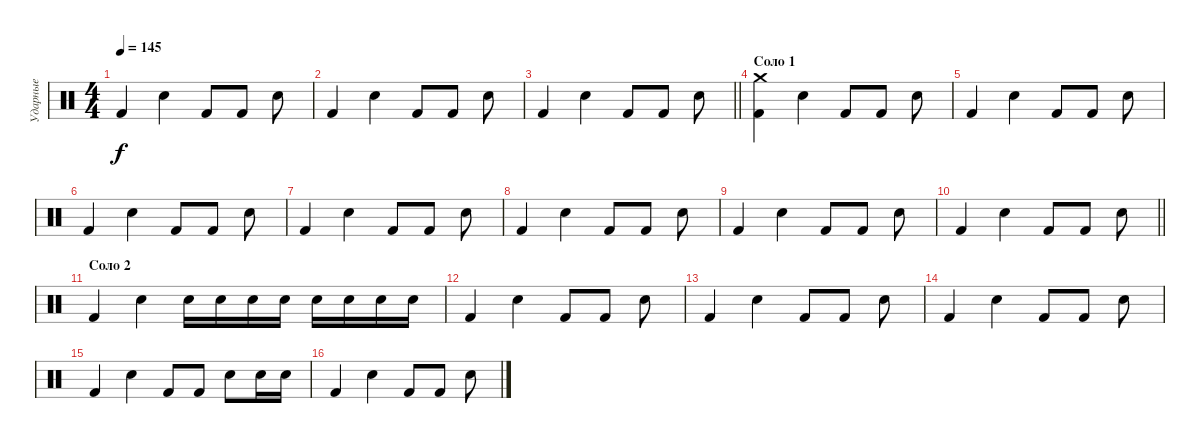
\track ("Ударные" "Ударные") {instrument percussion}
\staff {score}
\articulation defaults
\ts (4 4)
\tempo 145
\clef neutral
\ks c "Kick (hit) 2".4{dy f} "Snare (hit) 2".4 "Kick (hit) 2".8 "Kick (hit) 2".8 "Snare (hit) 2".8
|
"Kick (hit) 2".4 "Snare (hit) 2".4 "Kick (hit) 2".8 "Kick (hit) 2".8 "Snare (hit) 2".8 |
\barLineRight lightlight "Kick (hit) 2".4 "Snare (hit) 2".4 "Kick (hit) 2".8 "Kick (hit) 2".8 "Snare (hit) 2".8
|
\section ("" "Соло 1")
("Crash medium (hit)" "Kick (hit) 2").4 "Snare (hit) 2".4 "Kick (hit) 2".8 "Kick (hit) 2".8 "Snare (hit) 2".8 |
"Kick (hit) 2".4 "Snare (hit) 2".4 "Kick (hit) 2".8 "Kick (hit) 2".8 "Snare (hit) 2".8 |
"Kick (hit) 2".4 "Snare (hit) 2".4 "Kick (hit) 2".8 "Kick (hit) 2".8 "Snare (hit) 2".8 |
"Kick (hit) 2".4 "Snare (hit) 2".4 "Kick (hit) 2".8 "Kick (hit) 2".8 "Snare (hit) 2".8 |
"Kick (hit) 2".4 "Snare (hit) 2".4 "Kick (hit) 2".8 "Kick (hit) 2".8 "Snare (hit) 2".8 |
"Kick (hit) 2".4 "Snare (hit) 2".4 "Kick (hit) 2".8 "Kick (hit) 2".8 "Snare (hit) 2".8 |
\barLineRight lightlight "Kick (hit) 2".4 "Snare (hit) 2".4 "Kick (hit) 2".8 "Kick (hit) 2".8 "Snare (hit) 2".8
|
\section ("" "Соло 2")
"Kick (hit) 2".4 "Snare (hit) 2".4 "Snare (hit) 2".16 "Snare (hit) 2".16 "Snare (hit) 2".16 "Snare (hit) 2".16 "Snare (hit) 2".16 "Snare (hit) 2".16 "Snare (hit) 2".16 "Snare (hit) 2".16 |
"Kick (hit) 2".4 "Snare (hit) 2".4 "Kick (hit) 2".8 "Kick (hit) 2".8 "Snare (hit) 2".8 |
"Kick (hit) 2".4 "Snare (hit) 2".4 "Kick (hit) 2".8 "Kick (hit) 2".8 "Snare (hit) 2".8 |
"Kick (hit) 2".4 "Snare (hit) 2".4 "Kick (hit) 2".8 "Kick (hit) 2".8 "Snare (hit) 2".8 |
"Kick (hit) 2".4 "Snare (hit) 2".4 "Kick (hit) 2".8 "Kick (hit) 2".8 "Snare (hit) 2".8 "Snare (hit) 2".16 "Snare (hit) 2".16 |
"Kick (hit) 2".4 "Snare (hit) 2".4 "Kick (hit) 2".8 "Kick (hit) 2".8 "Snare (hit) 2".8
